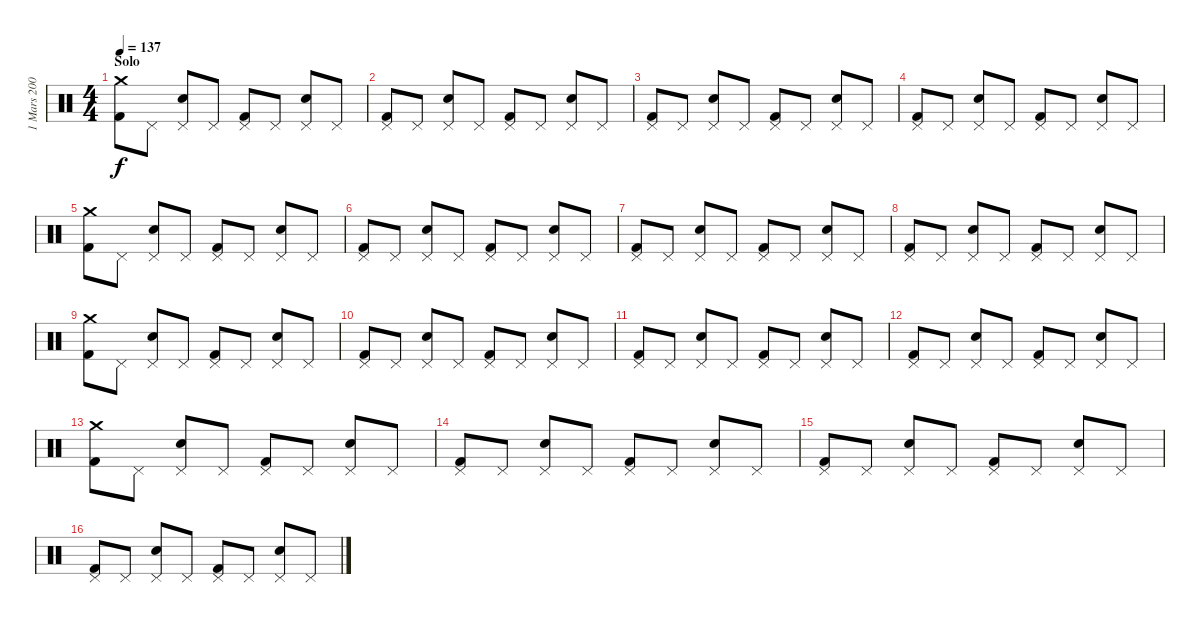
\track ("1 Mars 2004" "1 Mars 200") {instrument percussion}
\staff {score}
\articulation defaults
\ts (4 4)
\section ("" "Solo")
\tempo 137
\clef neutral
\ks c
("Crash medium (hit)" "Kick (hit) 2").8{dy f} "Pedal Hi-Hat (hit)".8 ("Pedal Hi-Hat (hit)" "Electric Snare (hit)").8 "Pedal Hi-Hat (hit)".8 ("Pedal Hi-Hat (hit)" "Kick (hit) 2").8 "Pedal Hi-Hat (hit)".8 ("Pedal Hi-Hat (hit)" "Electric Snare (hit)").8 "Pedal Hi-Hat (hit)".8 |
("Pedal Hi-Hat (hit)" "Kick (hit) 2").8 "Pedal Hi-Hat (hit)".8 ("Pedal Hi-Hat (hit)" "Electric Snare (hit)").8 "Pedal Hi-Hat (hit)".8 ("Pedal Hi-Hat (hit)" "Kick (hit) 2").8 "Pedal Hi-Hat (hit)".8 ("Pedal Hi-Hat (hit)" "Electric Snare (hit)").8 "Pedal Hi-Hat (hit)".8 |
("Pedal Hi-Hat (hit)" "Kick (hit) 2").8 "Pedal Hi-Hat (hit)".8 ("Pedal Hi-Hat (hit)" "Electric Snare (hit)").8 "Pedal Hi-Hat (hit)".8 ("Pedal Hi-Hat (hit)" "Kick (hit) 2").8 "Pedal Hi-Hat (hit)".8 ("Pedal Hi-Hat (hit)" "Electric Snare (hit)").8 "Pedal Hi-Hat (hit)".8 |
("Pedal Hi-Hat (hit)" "Kick (hit) 2").8 "Pedal Hi-Hat (hit)".8 ("Pedal Hi-Hat (hit)" "Electric Snare (hit)").8 "Pedal Hi-Hat (hit)".8 ("Pedal Hi-Hat (hit)" "Kick (hit) 2").8 "Pedal Hi-Hat (hit)".8 ("Pedal Hi-Hat (hit)" "Electric Snare (hit)").8 "Pedal Hi-Hat (hit)".8 |
("Crash medium (hit)" "Kick (hit) 2").8 "Pedal Hi-Hat (hit)".8 ("Pedal Hi-Hat (hit)" "Electric Snare (hit)").8 "Pedal Hi-Hat (hit)".8 ("Pedal Hi-Hat (hit)" "Kick (hit) 2").8 "Pedal Hi-Hat (hit)".8 ("Pedal Hi-Hat (hit)" "Electric Snare (hit)").8 "Pedal Hi-Hat (hit)".8 |
("Pedal Hi-Hat (hit)" "Kick (hit) 2").8 "Pedal Hi-Hat (hit)".8 ("Pedal Hi-Hat (hit)" "Electric Snare (hit)").8 "Pedal Hi-Hat (hit)".8 ("Pedal Hi-Hat (hit)" "Kick (hit) 2").8 "Pedal Hi-Hat (hit)".8 ("Pedal Hi-Hat (hit)" "Electric Snare (hit)").8 "Pedal Hi-Hat (hit)".8 |
("Pedal Hi-Hat (hit)" "Kick (hit) 2").8 "Pedal Hi-Hat (hit)".8 ("Pedal Hi-Hat (hit)" "Electric Snare (hit)").8 "Pedal Hi-Hat (hit)".8 ("Pedal Hi-Hat (hit)" "Kick (hit) 2").8 "Pedal Hi-Hat (hit)".8 ("Pedal Hi-Hat (hit)" "Electric Snare (hit)").8 "Pedal Hi-Hat (hit)".8 |
("Pedal Hi-Hat (hit)" "Kick (hit) 2").8 "Pedal Hi-Hat (hit)".8 ("Pedal Hi-Hat (hit)" "Electric Snare (hit)").8 "Pedal Hi-Hat (hit)".8 ("Pedal Hi-Hat (hit)" "Kick (hit) 2").8 "Pedal Hi-Hat (hit)".8 ("Pedal Hi-Hat (hit)" "Electric Snare (hit)").8 "Pedal Hi-Hat (hit)".8 |
("Crash medium (hit)" "Kick (hit) 2").8 "Pedal Hi-Hat (hit)".8 ("Pedal Hi-Hat (hit)" "Electric Snare (hit)").8 "Pedal Hi-Hat (hit)".8 ("Pedal Hi-Hat (hit)" "Kick (hit) 2").8 "Pedal Hi-Hat (hit)".8 ("Pedal Hi-Hat (hit)" "Electric Snare (hit)").8 "Pedal Hi-Hat (hit)".8 |
("Pedal Hi-Hat (hit)" "Kick (hit) 2").8 "Pedal Hi-Hat (hit)".8 ("Pedal Hi-Hat (hit)" "Electric Snare (hit)").8 "Pedal Hi-Hat (hit)".8 ("Pedal Hi-Hat (hit)" "Kick (hit) 2").8 "Pedal Hi-Hat (hit)".8 ("Pedal Hi-Hat (hit)" "Electric Snare (hit)").8 "Pedal Hi-Hat (hit)".8 |
("Pedal Hi-Hat (hit)" "Kick (hit) 2").8 "Pedal Hi-Hat (hit)".8 ("Pedal Hi-Hat (hit)" "Electric Snare (hit)").8 "Pedal Hi-Hat (hit)".8 ("Pedal Hi-Hat (hit)" "Kick (hit) 2").8 "Pedal Hi-Hat (hit)".8 ("Pedal Hi-Hat (hit)" "Electric Snare (hit)").8 "Pedal Hi-Hat (hit)".8 |
("Pedal Hi-Hat (hit)" "Kick (hit) 2").8 "Pedal Hi-Hat (hit)".8 ("Pedal Hi-Hat (hit)" "Electric Snare (hit)").8 "Pedal Hi-Hat (hit)".8 ("Pedal Hi-Hat (hit)" "Kick (hit) 2").8 "Pedal Hi-Hat (hit)".8 ("Pedal Hi-Hat (hit)" "Electric Snare (hit)").8 "Pedal Hi-Hat (hit)".8 |
("Crash medium (hit)" "Kick (hit) 2").8 "Pedal Hi-Hat (hit)".8 ("Pedal Hi-Hat (hit)" "Electric Snare (hit)").8 "Pedal Hi-Hat (hit)".8 ("Pedal Hi-Hat (hit)" "Kick (hit) 2").8 "Pedal Hi-Hat (hit)".8 ("Pedal Hi-Hat (hit)" "Electric Snare (hit)").8 "Pedal Hi-Hat (hit)".8 |
("Pedal Hi-Hat (hit)" "Kick (hit) 2").8 "Pedal Hi-Hat (hit)".8 ("Pedal Hi-Hat (hit)" "Electric Snare (hit)").8 "Pedal Hi-Hat (hit)".8 ("Pedal Hi-Hat (hit)" "Kick (hit) 2").8 "Pedal Hi-Hat (hit)".8 ("Pedal Hi-Hat (hit)" "Electric Snare (hit)").8 "Pedal Hi-Hat (hit)".8 |
("Pedal Hi-Hat (hit)" "Kick (hit) 2").8 "Pedal Hi-Hat (hit)".8 ("Pedal Hi-Hat (hit)" "Electric Snare (hit)").8 "Pedal Hi-Hat (hit)".8 ("Pedal Hi-Hat (hit)" "Kick (hit) 2").8 "Pedal Hi-Hat (hit)".8 ("Pedal Hi-Hat (hit)" "Electric Snare (hit)").8 "Pedal Hi-Hat (hit)".8 |
("Pedal Hi-Hat (hit)" "Kick (hit) 2").8 "Pedal Hi-Hat (hit)".8 ("Pedal Hi-Hat (hit)" "Electric Snare (hit)").8 "Pedal Hi-Hat (hit)".8 ("Pedal Hi-Hat (hit)" "Kick (hit) 2").8 "Pedal Hi-Hat (hit)".8 ("Pedal Hi-Hat (hit)" "Electric Snare (hit)").8 "Pedal Hi-Hat (hit)".8
